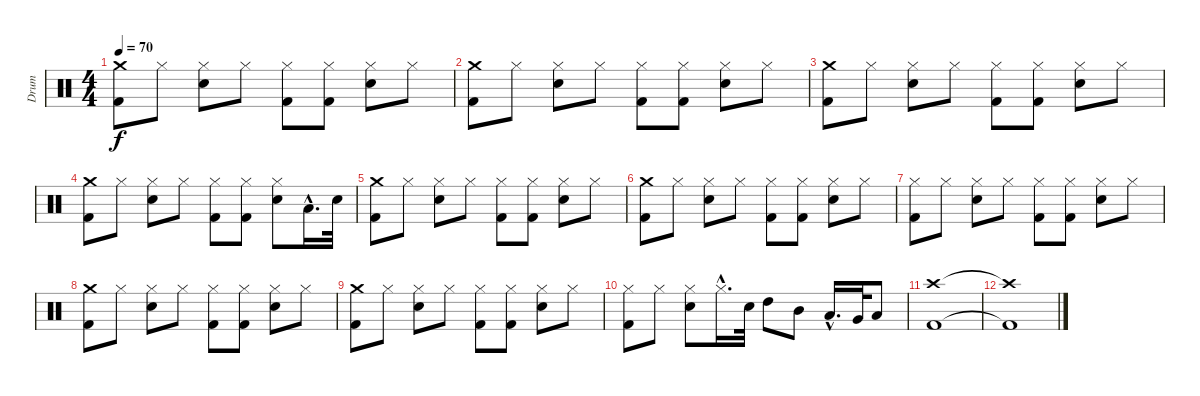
\track ("Drum" "Drum") {instrument percussion}
\staff {score}
\articulation defaults
\ts (4 4)
\tempo 70
\clef neutral
\ks c
("Crash medium (hit)" "Kick (hit) 2").8{dy f} "Hi-Hat (closed)".8 ("Hi-Hat (closed)" "Snare (hit) 2").8 "Hi-Hat (closed)".8 ("Hi-Hat (closed)" "Kick (hit) 2").8 ("Hi-Hat (closed)" "Kick (hit) 2").8 ("Hi-Hat (closed)" "Snare (hit) 2").8 "Hi-Hat (closed)".8 |
("Crash medium (hit)" "Kick (hit) 2").8 "Hi-Hat (closed)".8 ("Hi-Hat (closed)" "Snare (hit) 2").8 "Hi-Hat (closed)".8 ("Hi-Hat (closed)" "Kick (hit) 2").8 ("Hi-Hat (closed)" "Kick (hit) 2").8 ("Hi-Hat (closed)" "Snare (hit) 2").8 "Hi-Hat (closed)".8 |
("Crash medium (hit)" "Kick (hit) 2").8 "Hi-Hat (closed)".8 ("Hi-Hat (closed)" "Snare (hit) 2").8 "Hi-Hat (closed)".8 ("Hi-Hat (closed)" "Kick (hit) 2").8 ("Hi-Hat (closed)" "Kick (hit) 2").8 ("Hi-Hat (closed)" "Snare (hit) 2").8 "Hi-Hat (closed)".8 |
("Crash medium (hit)" "Kick (hit) 2").8 "Hi-Hat (closed)".8 ("Hi-Hat (closed)" "Snare (hit) 2").8 "Hi-Hat (closed)".8 ("Hi-Hat (closed)" "Kick (hit) 2").8 ("Hi-Hat (closed)" "Kick (hit) 2").8 ("Hi-Hat (closed)" "Snare (hit) 2").8 "Low Tom (hit)"{hac}.16{d} "Snare (hit) 2".32 |
("Crash medium (hit)" "Kick (hit) 2").8 "Hi-Hat (closed)".8 ("Hi-Hat (closed)" "Snare (hit) 2").8 "Hi-Hat (closed)".8 ("Hi-Hat (closed)" "Kick (hit) 2").8 ("Hi-Hat (closed)" "Kick (hit) 2").8 ("Hi-Hat (closed)" "Snare (hit) 2").8 "Hi-Hat (closed)".8 |
("Crash medium (hit)" "Kick (hit) 2").8 "Hi-Hat (closed)".8 ("Hi-Hat (closed)" "Snare (hit) 2").8 "Hi-Hat (closed)".8 ("Hi-Hat (closed)" "Kick (hit) 2").8 ("Hi-Hat (closed)" "Kick (hit) 2").8 ("Hi-Hat (closed)" "Snare (hit) 2").8 "Hi-Hat (closed)".8 |
("Hi-Hat (closed)" "Kick (hit) 2").8 "Hi-Hat (closed)".8 ("Hi-Hat (closed)" "Snare (hit) 2").8 "Hi-Hat (closed)".8 ("Hi-Hat (closed)" "Kick (hit) 2").8 ("Hi-Hat (closed)" "Kick (hit) 2").8 ("Hi-Hat (closed)" "Snare (hit) 2").8 "Hi-Hat (closed)".8 |
("Crash medium (hit)" "Kick (hit) 2").8 "Hi-Hat (closed)".8 ("Hi-Hat (closed)" "Snare (hit) 2").8 "Hi-Hat (closed)".8 ("Hi-Hat (closed)" "Kick (hit) 2").8 ("Hi-Hat (closed)" "Kick (hit) 2").8 ("Hi-Hat (closed)" "Snare (hit) 2").8 "Hi-Hat (closed)".8 |
("Crash medium (hit)" "Kick (hit) 2").8 "Hi-Hat (closed)".8 ("Hi-Hat (closed)" "Snare (hit) 2").8 "Hi-Hat (closed)".8 ("Hi-Hat (closed)" "Kick (hit) 2").8 ("Hi-Hat (closed)" "Kick (hit) 2").8 ("Hi-Hat (closed)" "Snare (hit) 2").8 "Hi-Hat (closed)".8 |
("Hi-Hat (closed)" "Kick (hit) 2").8 "Hi-Hat (closed)".8 ("Hi-Hat (closed)" "Snare (hit) 2").8 "Hi-Hat (closed)"{hac}.16{d} "Snare (hit) 2".32 "High Tom (hit)".8 "Mid Tom (hit)".8 "Low Tom (hit)"{hac}.16{d} "Very Low Tom (hit)".32 "Low Floor Tom (hit)".8 |
("Crash high (hit)" "Kick (hit) 2").1 |
("Crash high (hit)"{t} "Kick (hit) 2"{t}).1
